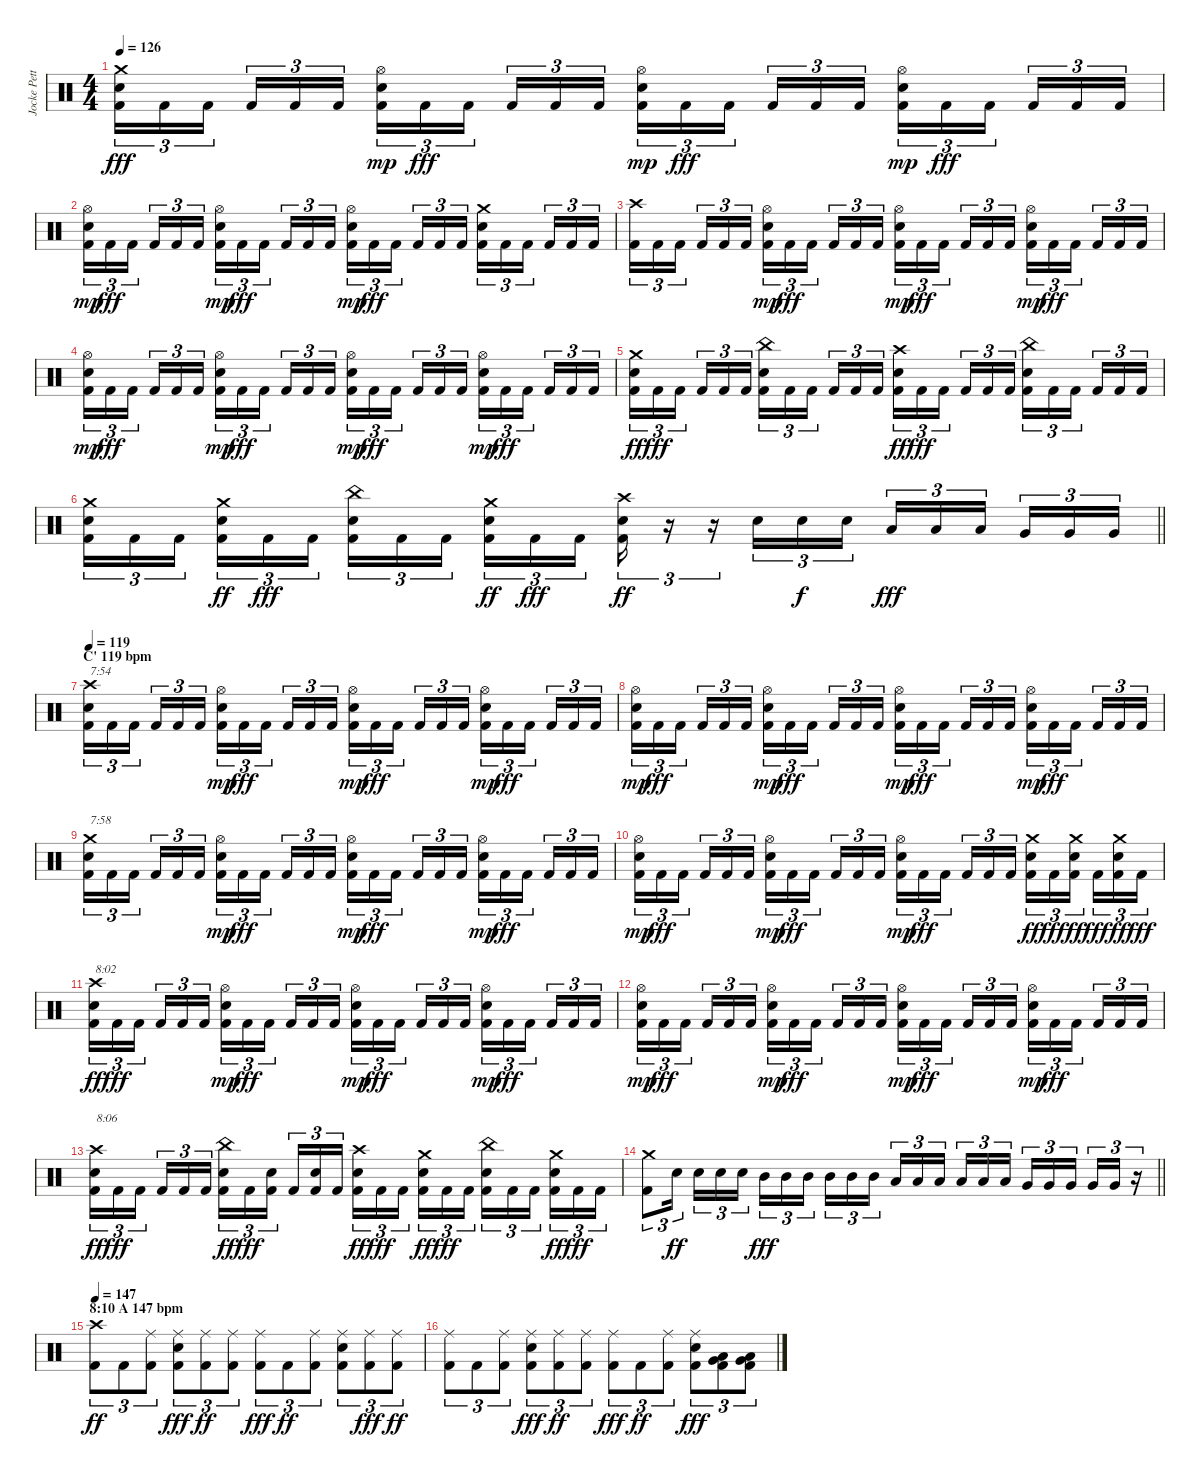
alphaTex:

\track ("Jocke Pettersson" "Jocke Pett") {instrument percussion}
\staff {score}
\articulation defaults
\ts (4 4)
\tempo 126
\clef neutral
\ks c
("Kick (hit) 2" "Electric Snare (hit)" "Crash medium (hit)").16{tu (3 2) dy fff} "Kick (hit) 2".16{tu (3 2)} "Kick (hit) 2".16{tu (3 2) beam splitsecondary} "Kick (hit) 2".16{tu (3 2)} "Kick (hit) 2".16{tu (3 2)} "Kick (hit) 2".16{tu (3 2)} ("Kick (hit) 2" "Electric Snare (hit)" "Hi-Hat (open)").16{tu (3 2) dy mp} "Kick (hit) 2".16{tu (3 2) dy fff} "Kick (hit) 2".16{tu (3 2) beam splitsecondary} "Kick (hit) 2".16{tu (3 2)} "Kick (hit) 2".16{tu (3 2)} "Kick (hit) 2".16{tu (3 2)} ("Kick (hit) 2" "Electric Snare (hit)" "Hi-Hat (open)").16{tu (3 2) dy mp} "Kick (hit) 2".16{tu (3 2) dy fff} "Kick (hit) 2".16{tu (3 2) beam splitsecondary} "Kick (hit) 2".16{tu (3 2)} "Kick (hit) 2".16{tu (3 2)} "Kick (hit) 2".16{tu (3 2)} ("Kick (hit) 2" "Electric Snare (hit)" "Hi-Hat (open)").16{tu (3 2) dy mp} "Kick (hit) 2".16{tu (3 2) dy fff} "Kick (hit) 2".16{tu (3 2) beam splitsecondary} "Kick (hit) 2".16{tu (3 2)} "Kick (hit) 2".16{tu (3 2)} "Kick (hit) 2".16{tu (3 2)} |
("Kick (hit) 2" "Electric Snare (hit)" "Hi-Hat (open)").16{tu (3 2) dy mp} "Kick (hit) 2".16{tu (3 2) dy fff} "Kick (hit) 2".16{tu (3 2) beam splitsecondary} "Kick (hit) 2".16{tu (3 2)} "Kick (hit) 2".16{tu (3 2)} "Kick (hit) 2".16{tu (3 2)} ("Kick (hit) 2" "Electric Snare (hit)" "Hi-Hat (open)").16{tu (3 2) dy mp} "Kick (hit) 2".16{tu (3 2) dy fff} "Kick (hit) 2".16{tu (3 2) beam splitsecondary} "Kick (hit) 2".16{tu (3 2)} "Kick (hit) 2".16{tu (3 2)} "Kick (hit) 2".16{tu (3 2)} ("Kick (hit) 2" "Electric Snare (hit)" "Hi-Hat (open)").16{tu (3 2) dy mp} "Kick (hit) 2".16{tu (3 2) dy fff} "Kick (hit) 2".16{tu (3 2) beam splitsecondary} "Kick (hit) 2".16{tu (3 2)} "Kick (hit) 2".16{tu (3 2)} "Kick (hit) 2".16{tu (3 2)} ("Kick (hit) 2" "Electric Snare (hit)" "Crash medium (hit)").16{tu (3 2)} "Kick (hit) 2".16{tu (3 2)} "Kick (hit) 2".16{tu (3 2) beam splitsecondary} "Kick (hit) 2".16{tu (3 2)} "Kick (hit) 2".16{tu (3 2)} "Kick (hit) 2".16{tu (3 2)} |
("Kick (hit) 2" "Crash high (hit)").16{tu (3 2)} "Kick (hit) 2".16{tu (3 2)} "Kick (hit) 2".16{tu (3 2) beam splitsecondary} "Kick (hit) 2".16{tu (3 2)} "Kick (hit) 2".16{tu (3 2)} "Kick (hit) 2".16{tu (3 2)} ("Kick (hit) 2" "Electric Snare (hit)" "Hi-Hat (open)").16{tu (3 2) dy mp} "Kick (hit) 2".16{tu (3 2) dy fff} "Kick (hit) 2".16{tu (3 2) beam splitsecondary} "Kick (hit) 2".16{tu (3 2)} "Kick (hit) 2".16{tu (3 2)} "Kick (hit) 2".16{tu (3 2)} ("Kick (hit) 2" "Electric Snare (hit)" "Hi-Hat (open)").16{tu (3 2) dy mp} "Kick (hit) 2".16{tu (3 2) dy fff} "Kick (hit) 2".16{tu (3 2) beam splitsecondary} "Kick (hit) 2".16{tu (3 2)} "Kick (hit) 2".16{tu (3 2)} "Kick (hit) 2".16{tu (3 2)} ("Kick (hit) 2" "Electric Snare (hit)" "Hi-Hat (open)").16{tu (3 2) dy mp} "Kick (hit) 2".16{tu (3 2) dy fff} "Kick (hit) 2".16{tu (3 2) beam splitsecondary} "Kick (hit) 2".16{tu (3 2)} "Kick (hit) 2".16{tu (3 2)} "Kick (hit) 2".16{tu (3 2)} |
("Kick (hit) 2" "Electric Snare (hit)" "Hi-Hat (open)").16{tu (3 2) dy mp} "Kick (hit) 2".16{tu (3 2) dy fff} "Kick (hit) 2".16{tu (3 2) beam splitsecondary} "Kick (hit) 2".16{tu (3 2)} "Kick (hit) 2".16{tu (3 2)} "Kick (hit) 2".16{tu (3 2)} ("Kick (hit) 2" "Electric Snare (hit)" "Hi-Hat (open)").16{tu (3 2) dy mp} "Kick (hit) 2".16{tu (3 2) dy fff} "Kick (hit) 2".16{tu (3 2) beam splitsecondary} "Kick (hit) 2".16{tu (3 2)} "Kick (hit) 2".16{tu (3 2)} "Kick (hit) 2".16{tu (3 2)} ("Kick (hit) 2" "Electric Snare (hit)" "Hi-Hat (open)").16{tu (3 2) dy mp} "Kick (hit) 2".16{tu (3 2) dy fff} "Kick (hit) 2".16{tu (3 2) beam splitsecondary} "Kick (hit) 2".16{tu (3 2)} "Kick (hit) 2".16{tu (3 2)} "Kick (hit) 2".16{tu (3 2)} ("Kick (hit) 2" "Electric Snare (hit)" "Hi-Hat (open)").16{tu (3 2) dy mp} "Kick (hit) 2".16{tu (3 2) dy fff} "Kick (hit) 2".16{tu (3 2) beam splitsecondary} "Kick (hit) 2".16{tu (3 2)} "Kick (hit) 2".16{tu (3 2)} "Kick (hit) 2".16{tu (3 2)} |
("Kick (hit) 2" "Electric Snare (hit)" "Crash medium (hit)").16{tu (3 2) dy ff} "Kick (hit) 2".16{tu (3 2) dy fff} "Kick (hit) 2".16{tu (3 2) beam splitsecondary} "Kick (hit) 2".16{tu (3 2)} "Kick (hit) 2".16{tu (3 2)} "Kick (hit) 2".16{tu (3 2)} ("Kick (hit) 2" "Electric Snare (hit)" "China (hit)").16{tu (3 2)} "Kick (hit) 2".16{tu (3 2)} "Kick (hit) 2".16{tu (3 2) beam splitsecondary} "Kick (hit) 2".16{tu (3 2)} "Kick (hit) 2".16{tu (3 2)} "Kick (hit) 2".16{tu (3 2)} ("Kick (hit) 2" "Electric Snare (hit)" "Crash high (hit)").16{tu (3 2) dy ff} "Kick (hit) 2".16{tu (3 2) dy fff} "Kick (hit) 2".16{tu (3 2) beam splitsecondary} "Kick (hit) 2".16{tu (3 2)} "Kick (hit) 2".16{tu (3 2)} "Kick (hit) 2".16{tu (3 2)} ("Kick (hit) 2" "Electric Snare (hit)" "China (hit)").16{tu (3 2)} "Kick (hit) 2".16{tu (3 2)} "Kick (hit) 2".16{tu (3 2) beam splitsecondary} "Kick (hit) 2".16{tu (3 2)} "Kick (hit) 2".16{tu (3 2)} "Kick (hit) 2".16{tu (3 2)} |
\barLineRight lightlight
("Kick (hit) 2" "Electric Snare (hit)" "Crash medium (hit)").16{tu (3 2)} "Kick (hit) 2".16{tu (3 2)} "Kick (hit) 2".16{tu (3 2) beam splitsecondary} ("Kick (hit) 2" "Electric Snare (hit)" "Crash medium (hit)").16{tu (3 2) dy ff} "Kick (hit) 2".16{tu (3 2) dy fff} "Kick (hit) 2".16{tu (3 2)} ("Kick (hit) 2" "Electric Snare (hit)" "China (hit)").16{tu (3 2)} "Kick (hit) 2".16{tu (3 2)} "Kick (hit) 2".16{tu (3 2) beam splitsecondary} ("Kick (hit) 2" "Electric Snare (hit)" "Crash medium (hit)").16{tu (3 2) dy ff} "Kick (hit) 2".16{tu (3 2) dy fff} "Kick (hit) 2".16{tu (3 2)} ("Kick (hit) 2" "Electric Snare (hit)" "Crash high (hit)").16{tu (3 2) dy ff} r.16{tu (3 2)} r.16{tu (3 2)} "Electric Snare (hit)".16{tu (3 2)} "Electric Snare (hit)".16{tu (3 2) dy f} "Electric Snare (hit)".16{tu (3 2)} "Low Tom (hit)".16{tu (3 2) dy fff} "Low Tom (hit)".16{tu (3 2)} "Low Tom (hit)".16{tu (3 2) beam splitsecondary} "Very Low Tom (hit)".16{tu (3 2)} "Very Low Tom (hit)".16{tu (3 2)} "Very Low Tom (hit)".16{tu (3 2)} |
\section ("" "C' 119 bpm")
\tempo 119
("Kick (hit) 2" "Electric Snare (hit)" "Crash high (hit)").16{tu (3 2) txt "7:54"} "Kick (hit) 2".16{tu (3 2)} "Kick (hit) 2".16{tu (3 2) beam splitsecondary} "Kick (hit) 2".16{tu (3 2)} "Kick (hit) 2".16{tu (3 2)} "Kick (hit) 2".16{tu (3 2)} ("Kick (hit) 2" "Electric Snare (hit)" "Hi-Hat (open)").16{tu (3 2) dy mp} "Kick (hit) 2".16{tu (3 2) dy fff} "Kick (hit) 2".16{tu (3 2) beam splitsecondary} "Kick (hit) 2".16{tu (3 2)} "Kick (hit) 2".16{tu (3 2)} "Kick (hit) 2".16{tu (3 2)} ("Kick (hit) 2" "Electric Snare (hit)" "Hi-Hat (open)").16{tu (3 2) dy mp} "Kick (hit) 2".16{tu (3 2) dy fff} "Kick (hit) 2".16{tu (3 2) beam splitsecondary} "Kick (hit) 2".16{tu (3 2)} "Kick (hit) 2".16{tu (3 2)} "Kick (hit) 2".16{tu (3 2)} ("Kick (hit) 2" "Electric Snare (hit)" "Hi-Hat (open)").16{tu (3 2) dy mp} "Kick (hit) 2".16{tu (3 2) dy fff} "Kick (hit) 2".16{tu (3 2) beam splitsecondary} "Kick (hit) 2".16{tu (3 2)} "Kick (hit) 2".16{tu (3 2)} "Kick (hit) 2".16{tu (3 2)} |
("Kick (hit) 2" "Electric Snare (hit)" "Hi-Hat (open)").16{tu (3 2) dy mp} "Kick (hit) 2".16{tu (3 2) dy fff} "Kick (hit) 2".16{tu (3 2) beam splitsecondary} "Kick (hit) 2".16{tu (3 2)} "Kick (hit) 2".16{tu (3 2)} "Kick (hit) 2".16{tu (3 2)} ("Kick (hit) 2" "Electric Snare (hit)" "Hi-Hat (open)").16{tu (3 2) dy mp} "Kick (hit) 2".16{tu (3 2) dy fff} "Kick (hit) 2".16{tu (3 2) beam splitsecondary} "Kick (hit) 2".16{tu (3 2)} "Kick (hit) 2".16{tu (3 2)} "Kick (hit) 2".16{tu (3 2)} ("Kick (hit) 2" "Electric Snare (hit)" "Hi-Hat (open)").16{tu (3 2) dy mp} "Kick (hit) 2".16{tu (3 2) dy fff} "Kick (hit) 2".16{tu (3 2) beam splitsecondary} "Kick (hit) 2".16{tu (3 2)} "Kick (hit) 2".16{tu (3 2)} "Kick (hit) 2".16{tu (3 2)} ("Kick (hit) 2" "Electric Snare (hit)" "Hi-Hat (open)").16{tu (3 2) dy mp} "Kick (hit) 2".16{tu (3 2) dy fff} "Kick (hit) 2".16{tu (3 2) beam splitsecondary} "Kick (hit) 2".16{tu (3 2)} "Kick (hit) 2".16{tu (3 2)} "Kick (hit) 2".16{tu (3 2)} |
("Kick (hit) 2" "Electric Snare (hit)" "Crash medium (hit)").16{tu (3 2) txt "7:58"} "Kick (hit) 2".16{tu (3 2)} "Kick (hit) 2".16{tu (3 2) beam splitsecondary} "Kick (hit) 2".16{tu (3 2)} "Kick (hit) 2".16{tu (3 2)} "Kick (hit) 2".16{tu (3 2)} ("Kick (hit) 2" "Electric Snare (hit)" "Hi-Hat (open)").16{tu (3 2) dy mp} "Kick (hit) 2".16{tu (3 2) dy fff} "Kick (hit) 2".16{tu (3 2) beam splitsecondary} "Kick (hit) 2".16{tu (3 2)} "Kick (hit) 2".16{tu (3 2)} "Kick (hit) 2".16{tu (3 2)} ("Kick (hit) 2" "Electric Snare (hit)" "Hi-Hat (open)").16{tu (3 2) dy mp} "Kick (hit) 2".16{tu (3 2) dy fff} "Kick (hit) 2".16{tu (3 2) beam splitsecondary} "Kick (hit) 2".16{tu (3 2)} "Kick (hit) 2".16{tu (3 2)} "Kick (hit) 2".16{tu (3 2)} ("Kick (hit) 2" "Electric Snare (hit)" "Hi-Hat (open)").16{tu (3 2) dy mp} "Kick (hit) 2".16{tu (3 2) dy fff} "Kick (hit) 2".16{tu (3 2) beam splitsecondary} "Kick (hit) 2".16{tu (3 2)} "Kick (hit) 2".16{tu (3 2)} "Kick (hit) 2".16{tu (3 2)} |
("Kick (hit) 2" "Electric Snare (hit)" "Hi-Hat (open)").16{tu (3 2) dy mp} "Kick (hit) 2".16{tu (3 2) dy fff} "Kick (hit) 2".16{tu (3 2) beam splitsecondary} "Kick (hit) 2".16{tu (3 2)} "Kick (hit) 2".16{tu (3 2)} "Kick (hit) 2".16{tu (3 2)} ("Kick (hit) 2" "Electric Snare (hit)" "Hi-Hat (open)").16{tu (3 2) dy mp} "Kick (hit) 2".16{tu (3 2) dy fff} "Kick (hit) 2".16{tu (3 2) beam splitsecondary} "Kick (hit) 2".16{tu (3 2)} "Kick (hit) 2".16{tu (3 2)} "Kick (hit) 2".16{tu (3 2)} ("Kick (hit) 2" "Electric Snare (hit)" "Hi-Hat (open)").16{tu (3 2) dy mp} "Kick (hit) 2".16{tu (3 2) dy fff} "Kick (hit) 2".16{tu (3 2) beam splitsecondary} "Kick (hit) 2".16{tu (3 2)} "Kick (hit) 2".16{tu (3 2)} "Kick (hit) 2".16{tu (3 2)} ("Kick (hit) 2" "Electric Snare (hit)" "Crash medium (hit)").16{tu (3 2) dy ff} "Kick (hit) 2".16{tu (3 2) dy fff} ("Kick (hit) 2" "Electric Snare (hit)" "Crash medium (hit)").16{tu (3 2) dy ff beam splitsecondary} "Kick (hit) 2".16{tu (3 2) dy fff} ("Kick (hit) 2" "Electric Snare (hit)" "Crash medium (hit)").16{tu (3 2) dy ff} "Kick (hit) 2".16{tu (3 2) dy fff} |
("Kick (hit) 2" "Electric Snare (hit)" "Crash high (hit)").16{tu (3 2) txt "8:02" dy ff} "Kick (hit) 2".16{tu (3 2) dy fff} "Kick (hit) 2".16{tu (3 2) beam splitsecondary} "Kick (hit) 2".16{tu (3 2)} "Kick (hit) 2".16{tu (3 2)} "Kick (hit) 2".16{tu (3 2)} ("Kick (hit) 2" "Electric Snare (hit)" "Hi-Hat (open)").16{tu (3 2) dy mp} "Kick (hit) 2".16{tu (3 2) dy fff} "Kick (hit) 2".16{tu (3 2) beam splitsecondary} "Kick (hit) 2".16{tu (3 2)} "Kick (hit) 2".16{tu (3 2)} "Kick (hit) 2".16{tu (3 2)} ("Kick (hit) 2" "Electric Snare (hit)" "Hi-Hat (open)").16{tu (3 2) dy mp} "Kick (hit) 2".16{tu (3 2) dy fff} "Kick (hit) 2".16{tu (3 2) beam splitsecondary} "Kick (hit) 2".16{tu (3 2)} "Kick (hit) 2".16{tu (3 2)} "Kick (hit) 2".16{tu (3 2)} ("Kick (hit) 2" "Electric Snare (hit)" "Hi-Hat (open)").16{tu (3 2) dy mp} "Kick (hit) 2".16{tu (3 2) dy fff} "Kick (hit) 2".16{tu (3 2) beam splitsecondary} "Kick (hit) 2".16{tu (3 2)} "Kick (hit) 2".16{tu (3 2)} "Kick (hit) 2".16{tu (3 2)} |
("Kick (hit) 2" "Electric Snare (hit)" "Hi-Hat (open)").16{tu (3 2) dy mp} "Kick (hit) 2".16{tu (3 2) dy fff} "Kick (hit) 2".16{tu (3 2) beam splitsecondary} "Kick (hit) 2".16{tu (3 2)} "Kick (hit) 2".16{tu (3 2)} "Kick (hit) 2".16{tu (3 2)} ("Kick (hit) 2" "Electric Snare (hit)" "Hi-Hat (open)").16{tu (3 2) dy mp} "Kick (hit) 2".16{tu (3 2) dy fff} "Kick (hit) 2".16{tu (3 2) beam splitsecondary} "Kick (hit) 2".16{tu (3 2)} "Kick (hit) 2".16{tu (3 2)} "Kick (hit) 2".16{tu (3 2)} ("Kick (hit) 2" "Electric Snare (hit)" "Hi-Hat (open)").16{tu (3 2) dy mp} "Kick (hit) 2".16{tu (3 2) dy fff} "Kick (hit) 2".16{tu (3 2) beam splitsecondary} "Kick (hit) 2".16{tu (3 2)} "Kick (hit) 2".16{tu (3 2)} "Kick (hit) 2".16{tu (3 2)} ("Kick (hit) 2" "Electric Snare (hit)" "Hi-Hat (open)").16{tu (3 2) dy mp} "Kick (hit) 2".16{tu (3 2) dy fff} "Kick (hit) 2".16{tu (3 2) beam splitsecondary} "Kick (hit) 2".16{tu (3 2)} "Kick (hit) 2".16{tu (3 2)} "Kick (hit) 2".16{tu (3 2)} |
("Kick (hit) 2" "Electric Snare (hit)" "Crash high (hit)").16{tu (3 2) txt "8:06" dy ff} "Kick (hit) 2".16{tu (3 2) dy fff} "Kick (hit) 2".16{tu (3 2) beam splitsecondary} "Kick (hit) 2".16{tu (3 2)} "Kick (hit) 2".16{tu (3 2)} "Kick (hit) 2".16{tu (3 2)} ("Kick (hit) 2" "Electric Snare (hit)" "China (hit)").16{tu (3 2) dy ff} "Kick (hit) 2".16{tu (3 2) dy fff} ("Kick (hit) 2" "Electric Snare (hit)").16{tu (3 2) beam splitsecondary} "Kick (hit) 2".16{tu (3 2)} ("Kick (hit) 2" "Electric Snare (hit)").16{tu (3 2)} "Kick (hit) 2".16{tu (3 2)} ("Kick (hit) 2" "Electric Snare (hit)" "Crash high (hit)").16{tu (3 2) dy ff} "Kick (hit) 2".16{tu (3 2) dy fff} "Kick (hit) 2".16{tu (3 2) beam splitsecondary} ("Kick (hit) 2" "Electric Snare (hit)" "Crash medium (hit)").16{tu (3 2) dy ff} "Kick (hit) 2".16{tu (3 2) dy fff} "Kick (hit) 2".16{tu (3 2)} ("Kick (hit) 2" "Electric Snare (hit)" "China (hit)").16{tu (3 2)} "Kick (hit) 2".16{tu (3 2)} "Kick (hit) 2".16{tu (3 2) beam splitsecondary} ("Kick (hit) 2" "Electric Snare (hit)" "Crash medium (hit)").16{tu (3 2) dy ff} "Kick (hit) 2".16{tu (3 2) dy fff} "Kick (hit) 2".16{tu (3 2)} |
\barLineRight lightlight
("Kick (hit) 2" "Crash medium (hit)").8{tu (3 2)} "Electric Snare (hit)".16{tu (3 2) dy ff beam splitsecondary} "Electric Snare (hit)".16{tu (3 2)} "Electric Snare (hit)".16{tu (3 2)} "Electric Snare (hit)".16{tu (3 2)} "Mid Tom (hit)".16{tu (3 2) dy fff} "Mid Tom (hit)".16{tu (3 2)} "Mid Tom (hit)".16{tu (3 2) beam splitsecondary} "Mid Tom (hit)".16{tu (3 2)} "Mid Tom (hit)".16{tu (3 2)} "Mid Tom (hit)".16{tu (3 2)} "Low Tom (hit)".16{tu (3 2)} "Low Tom (hit)".16{tu (3 2)} "Low Tom (hit)".16{tu (3 2) beam splitsecondary} "Low Tom (hit)".16{tu (3 2)} "Low Tom (hit)".16{tu (3 2)} "Low Tom (hit)".16{tu (3 2)} "Very Low Tom (hit)".16{tu (3 2)} "Very Low Tom (hit)".16{tu (3 2)} "Very Low Tom (hit)".16{tu (3 2) beam splitsecondary} "Very Low Tom (hit)".16{tu (3 2)} "Very Low Tom (hit)".16{tu (3 2)} r.16{tu (3 2)} |
\section ("" "8:10 A 147 bpm")
\tempo 147
("Kick (hit) 2" "Crash high (hit)").8{tu (3 2) dy ff} "Kick (hit) 2".8{tu (3 2)} ("Kick (hit) 2" "Ride (middle)").8{tu (3 2)} ("Kick (hit) 2" "Electric Snare (hit)" "Ride (middle)").8{tu (3 2) dy fff} ("Kick (hit) 2" "Ride (middle)").8{tu (3 2) dy ff} ("Kick (hit) 2" "Ride (middle)").8{tu (3 2)} ("Kick (hit) 2" "Ride (middle)").8{tu (3 2) dy fff} "Kick (hit) 2".8{tu (3 2) dy ff} ("Kick (hit) 2" "Ride (middle)").8{tu (3 2)} ("Kick (hit) 2" "Electric Snare (hit)" "Ride (middle)").8{tu (3 2)} ("Kick (hit) 2" "Ride (middle)").8{tu (3 2) dy fff} ("Kick (hit) 2" "Ride (middle)").8{tu (3 2) dy ff} |
("Kick (hit) 2" "Ride (middle)").8{tu (3 2)} "Kick (hit) 2".8{tu (3 2)} ("Kick (hit) 2" "Ride (middle)").8{tu (3 2)} ("Kick (hit) 2" "Electric Snare (hit)" "Ride (middle)").8{tu (3 2) dy fff} ("Kick (hit) 2" "Ride (middle)").8{tu (3 2) dy ff} ("Kick (hit) 2" "Ride (middle)").8{tu (3 2)} ("Kick (hit) 2" "Ride (middle)").8{tu (3 2) dy fff} "Kick (hit) 2".8{tu (3 2) dy ff} ("Kick (hit) 2" "Ride (middle)").8{tu (3 2)} ("Kick (hit) 2" "Electric Snare (hit)" "Ride (middle)").8{tu (3 2) dy fff} ("Kick (hit) 2" "Very Low Tom (hit)" "Low Tom (hit)").8{tu (3 2)} ("Kick (hit) 2" "Very Low Tom (hit)" "Low Tom (hit)").8{tu (3 2)}
